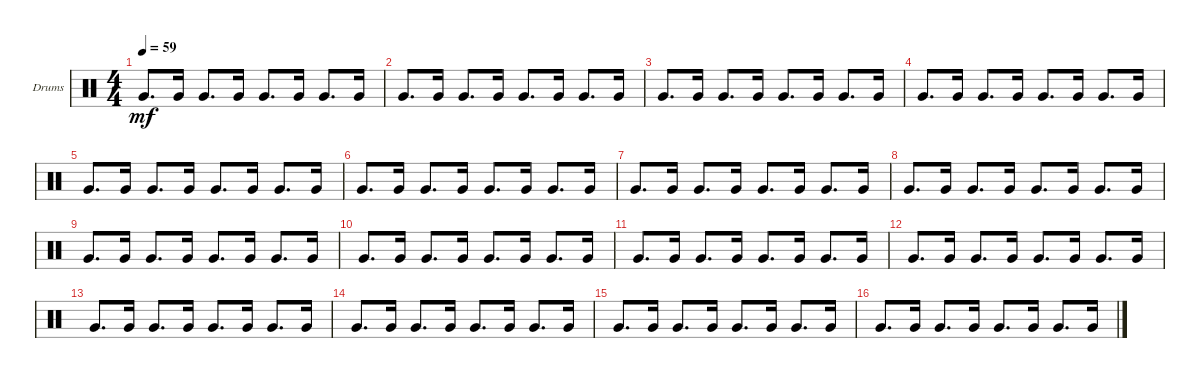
\defaultSystemsLayout 4
\bracketExtendMode groupsimilarinstruments
\firstSystemTrackNameOrientation horizontal
\otherSystemsTrackNameOrientation horizontal
\track ("Drumkit" "Drums") {instrument percussion}
\staff {score}
\articulation defaults
\ts (4 4)
\tempo 59
\clef neutral
\scale
0.472222
\ks c "Very Low Tom (hit)".8{d dy mf} "Very Low Tom (hit)".16 "Very Low Tom (hit)".8{d} "Very Low Tom (hit)".16 "Very Low Tom (hit)".8{d} "Very Low Tom (hit)".16 "Very Low Tom (hit)".8{d} "Very Low Tom (hit)".16
|
\scale
0.263889 "Very Low Tom (hit)".8{d} "Very Low Tom (hit)".16 "Very Low Tom (hit)".8{d} "Very Low Tom (hit)".16 "Very Low Tom (hit)".8{d} "Very Low Tom (hit)".16 "Very Low Tom (hit)".8{d} "Very Low Tom (hit)".16 |
\scale
0.263889 "Very Low Tom (hit)".8{d} "Very Low Tom (hit)".16 "Very Low Tom (hit)".8{d} "Very Low Tom (hit)".16 "Very Low Tom (hit)".8{d} "Very Low Tom (hit)".16 "Very Low Tom (hit)".8{d} "Very Low Tom (hit)".16 |
\scale
0.333333 "Very Low Tom (hit)".8{d} "Very Low Tom (hit)".16 "Very Low Tom (hit)".8{d} "Very Low Tom (hit)".16 "Very Low Tom (hit)".8{d} "Very Low Tom (hit)".16 "Very Low Tom (hit)".8{d} "Very Low Tom (hit)".16 |
\scale
0.333333 "Very Low Tom (hit)".8{d} "Very Low Tom (hit)".16 "Very Low Tom (hit)".8{d} "Very Low Tom (hit)".16 "Very Low Tom (hit)".8{d} "Very Low Tom (hit)".16 "Very Low Tom (hit)".8{d} "Very Low Tom (hit)".16 |
\scale
0.333333 "Very Low Tom (hit)".8{d} "Very Low Tom (hit)".16 "Very Low Tom (hit)".8{d} "Very Low Tom (hit)".16 "Very Low Tom (hit)".8{d} "Very Low Tom (hit)".16 "Very Low Tom (hit)".8{d} "Very Low Tom (hit)".16 |
\scale
0.333333 "Very Low Tom (hit)".8{d} "Very Low Tom (hit)".16 "Very Low Tom (hit)".8{d} "Very Low Tom (hit)".16 "Very Low Tom (hit)".8{d} "Very Low Tom (hit)".16 "Very Low Tom (hit)".8{d} "Very Low Tom (hit)".16 |
\scale
0.333333 "Very Low Tom (hit)".8{d} "Very Low Tom (hit)".16 "Very Low Tom (hit)".8{d} "Very Low Tom (hit)".16 "Very Low Tom (hit)".8{d} "Very Low Tom (hit)".16 "Very Low Tom (hit)".8{d} "Very Low Tom (hit)".16 |
\scale
0.333333 "Very Low Tom (hit)".8{d} "Very Low Tom (hit)".16 "Very Low Tom (hit)".8{d} "Very Low Tom (hit)".16 "Very Low Tom (hit)".8{d} "Very Low Tom (hit)".16 "Very Low Tom (hit)".8{d} "Very Low Tom (hit)".16 |
"Very Low Tom (hit)".8{d} "Very Low Tom (hit)".16 "Very Low Tom (hit)".8{d} "Very Low Tom (hit)".16 "Very Low Tom (hit)".8{d} "Very Low Tom (hit)".16 "Very Low Tom (hit)".8{d} "Very Low Tom (hit)".16 |
\scale
0.333333 "Very Low Tom (hit)".8{d} "Very Low Tom (hit)".16 "Very Low Tom (hit)".8{d} "Very Low Tom (hit)".16 "Very Low Tom (hit)".8{d} "Very Low Tom (hit)".16 "Very Low Tom (hit)".8{d} "Very Low Tom (hit)".16 |
\scale
0.333333 "Very Low Tom (hit)".8{d} "Very Low Tom (hit)".16 "Very Low Tom (hit)".8{d} "Very Low Tom (hit)".16 "Very Low Tom (hit)".8{d} "Very Low Tom (hit)".16 "Very Low Tom (hit)".8{d} "Very Low Tom (hit)".16 |
\scale
0.333333 "Very Low Tom (hit)".8{d} "Very Low Tom (hit)".16 "Very Low Tom (hit)".8{d} "Very Low Tom (hit)".16 "Very Low Tom (hit)".8{d} "Very Low Tom (hit)".16 "Very Low Tom (hit)".8{d} "Very Low Tom (hit)".16 |
\scale
0.333333 "Very Low Tom (hit)".8{d} "Very Low Tom (hit)".16 "Very Low Tom (hit)".8{d} "Very Low Tom (hit)".16 "Very Low Tom (hit)".8{d} "Very Low Tom (hit)".16 "Very Low Tom (hit)".8{d} "Very Low Tom (hit)".16 |
\scale
0.333333 "Very Low Tom (hit)".8{d} "Very Low Tom (hit)".16 "Very Low Tom (hit)".8{d} "Very Low Tom (hit)".16 "Very Low Tom (hit)".8{d} "Very Low Tom (hit)".16 "Very Low Tom (hit)".8{d} "Very Low Tom (hit)".16 |
\scale
0.333333 "Very Low Tom (hit)".8{d} "Very Low Tom (hit)".16 "Very Low Tom (hit)".8{d} "Very Low Tom (hit)".16 "Very Low Tom (hit)".8{d} "Very Low Tom (hit)".16 "Very Low Tom (hit)".8{d} "Very Low Tom (hit)".16
